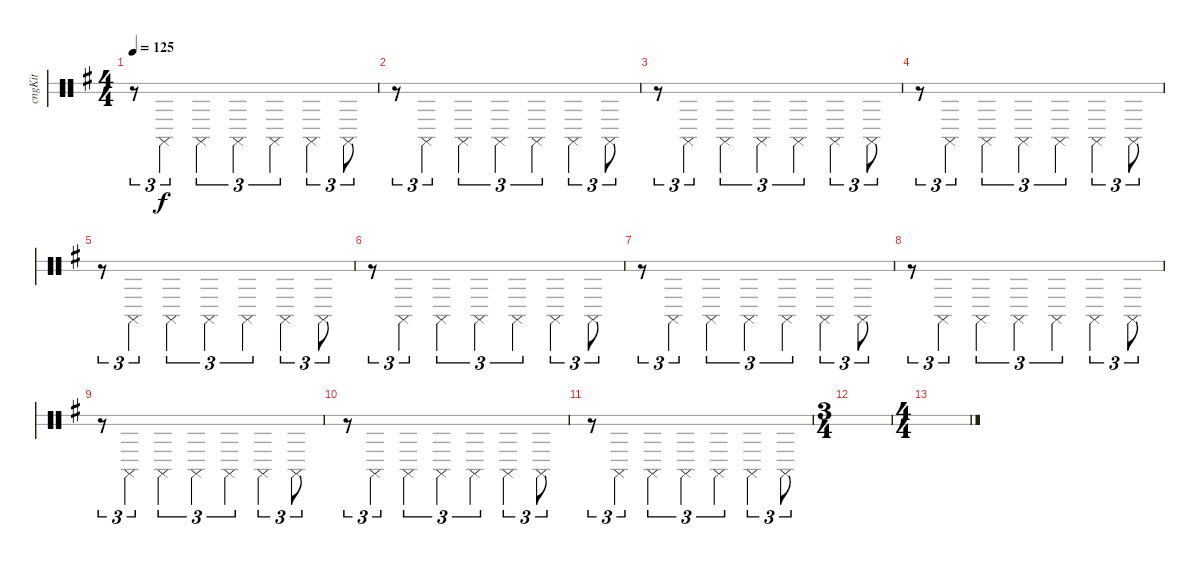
\defaultSystemsLayout 4
\bracketExtendMode groupsimilarinstruments
\otherSystemsTrackNameOrientation horizontal
\track ("Congas" "cngKit") {instrument percussion}
\staff {score 2}
\articulation defaults
\ts (4 4)
\tempo 125
\clef neutral
\scale
0.333333
\ks g
r.8{tu (3 2) dy f beam Down} "Conga high (slap)"{acc forcenatural}.4{tu (3 2) beam Down} "Conga high (slap)"{acc forcenatural}.4{tu (3 2) beam Down} "Conga high (slap)"{acc forcenatural}.4{tu (3 2) beam Down} "Conga high (slap)"{acc forcenatural}.4{tu (3 2) beam Down} "Conga high (slap)"{acc forcenatural}.4{tu (3 2) beam Down} "Conga high (slap)"{acc forcenatural}.8{tu (3 2) beam Down} |
\scale
0.333333 r.8{tu (3 2) beam Down} "Conga high (slap)"{acc forcenatural}.4{tu (3 2) beam Down} "Conga high (slap)"{acc forcenatural}.4{tu (3 2) beam Down} "Conga high (slap)"{acc forcenatural}.4{tu (3 2) beam Down} "Conga high (slap)"{acc forcenatural}.4{tu (3 2) beam Down} "Conga high (slap)"{acc forcenatural}.4{tu (3 2) beam Down} "Conga high (slap)"{acc forcenatural}.8{tu (3 2) beam Down} |
\scale
0.333333 r.8{tu (3 2) beam Down} "Conga high (slap)"{acc forcenatural}.4{tu (3 2) beam Down} "Conga high (slap)"{acc forcenatural}.4{tu (3 2) beam Down} "Conga high (slap)"{acc forcenatural}.4{tu (3 2) beam Down} "Conga high (slap)"{acc forcenatural}.4{tu (3 2) beam Down} "Conga high (slap)"{acc forcenatural}.4{tu (3 2) beam Down} "Conga high (slap)"{acc forcenatural}.8{tu (3 2) beam Down} |
\scale
0.333333 r.8{tu (3 2) beam Down} "Conga high (slap)"{acc forcenatural}.4{tu (3 2) beam Down} "Conga high (slap)"{acc forcenatural}.4{tu (3 2) beam Down} "Conga high (slap)"{acc forcenatural}.4{tu (3 2) beam Down} "Conga high (slap)"{acc forcenatural}.4{tu (3 2) beam Down} "Conga high (slap)"{acc forcenatural}.4{tu (3 2) beam Down} "Conga high (slap)"{acc forcenatural}.8{tu (3 2) beam Down} |
\scale
0.333333 r.8{tu (3 2) beam Down} "Conga high (slap)"{acc forcenatural}.4{tu (3 2) beam Down} "Conga high (slap)"{acc forcenatural}.4{tu (3 2) beam Down} "Conga high (slap)"{acc forcenatural}.4{tu (3 2) beam Down} "Conga high (slap)"{acc forcenatural}.4{tu (3 2) beam Down} "Conga high (slap)"{acc forcenatural}.4{tu (3 2) beam Down} "Conga high (slap)"{acc forcenatural}.8{tu (3 2) beam Down} |
\scale
0.333333 r.8{tu (3 2) beam Down} "Conga high (slap)"{acc forcenatural}.4{tu (3 2) beam Down} "Conga high (slap)"{acc forcenatural}.4{tu (3 2) beam Down} "Conga high (slap)"{acc forcenatural}.4{tu (3 2) beam Down} "Conga high (slap)"{acc forcenatural}.4{tu (3 2) beam Down} "Conga high (slap)"{acc forcenatural}.4{tu (3 2) beam Down} "Conga high (slap)"{acc forcenatural}.8{tu (3 2) beam Down} |
\scale
0.333333 r.8{tu (3 2) beam Down} "Conga high (slap)"{acc forcenatural}.4{tu (3 2) beam Down} "Conga high (slap)"{acc forcenatural}.4{tu (3 2) beam Down} "Conga high (slap)"{acc forcenatural}.4{tu (3 2) beam Down} "Conga high (slap)"{acc forcenatural}.4{tu (3 2) beam Down} "Conga high (slap)"{acc forcenatural}.4{tu (3 2) beam Down} "Conga high (slap)"{acc forcenatural}.8{tu (3 2) beam Down} |
\scale
0.333333 r.8{tu (3 2) beam Down} "Conga high (slap)"{acc forcenatural}.4{tu (3 2) beam Down} "Conga high (slap)"{acc forcenatural}.4{tu (3 2) beam Down} "Conga high (slap)"{acc forcenatural}.4{tu (3 2) beam Down} "Conga high (slap)"{acc forcenatural}.4{tu (3 2) beam Down} "Conga high (slap)"{acc forcenatural}.4{tu (3 2) beam Down} "Conga high (slap)"{acc forcenatural}.8{tu (3 2) beam Down} |
\scale
0.333333 r.8{tu (3 2) beam Down} "Conga high (slap)"{acc forcenatural}.4{tu (3 2) beam Down} "Conga high (slap)"{acc forcenatural}.4{tu (3 2) beam Down} "Conga high (slap)"{acc forcenatural}.4{tu (3 2) beam Down} "Conga high (slap)"{acc forcenatural}.4{tu (3 2) beam Down} "Conga high (slap)"{acc forcenatural}.4{tu (3 2) beam Down} "Conga high (slap)"{acc forcenatural}.8{tu (3 2) beam Down} |
\scale
0.262911 r.8{tu (3 2) beam Down} "Conga high (slap)"{acc forcenatural}.4{tu (3 2) beam Down} "Conga high (slap)"{acc forcenatural}.4{tu (3 2) beam Down} "Conga high (slap)"{acc forcenatural}.4{tu (3 2) beam Down} "Conga high (slap)"{acc forcenatural}.4{tu (3 2) beam Down} "Conga high (slap)"{acc forcenatural}.4{tu (3 2) beam Down} "Conga high (slap)"{acc forcenatural}.8{tu (3 2) beam Down} |
\scale
0.262911 r.8{tu (3 2) beam Down} "Conga high (slap)"{acc forcenatural}.4{tu (3 2) beam Down} "Conga high (slap)"{acc forcenatural}.4{tu (3 2) beam Down} "Conga high (slap)"{acc forcenatural}.4{tu (3 2) beam Down} "Conga high (slap)"{acc forcenatural}.4{tu (3 2) beam Down} "Conga high (slap)"{acc forcenatural}.4{tu (3 2) beam Down} "Conga high (slap)"{acc forcenatural}.8{tu (3 2) beam Down} |
\ts (3 4)
\scale
0.474178 |
\ts (4 4)
\scale
0.474178 |
\scale
0.262911 |
\scale
0.262911 |
\scale
0.333333
